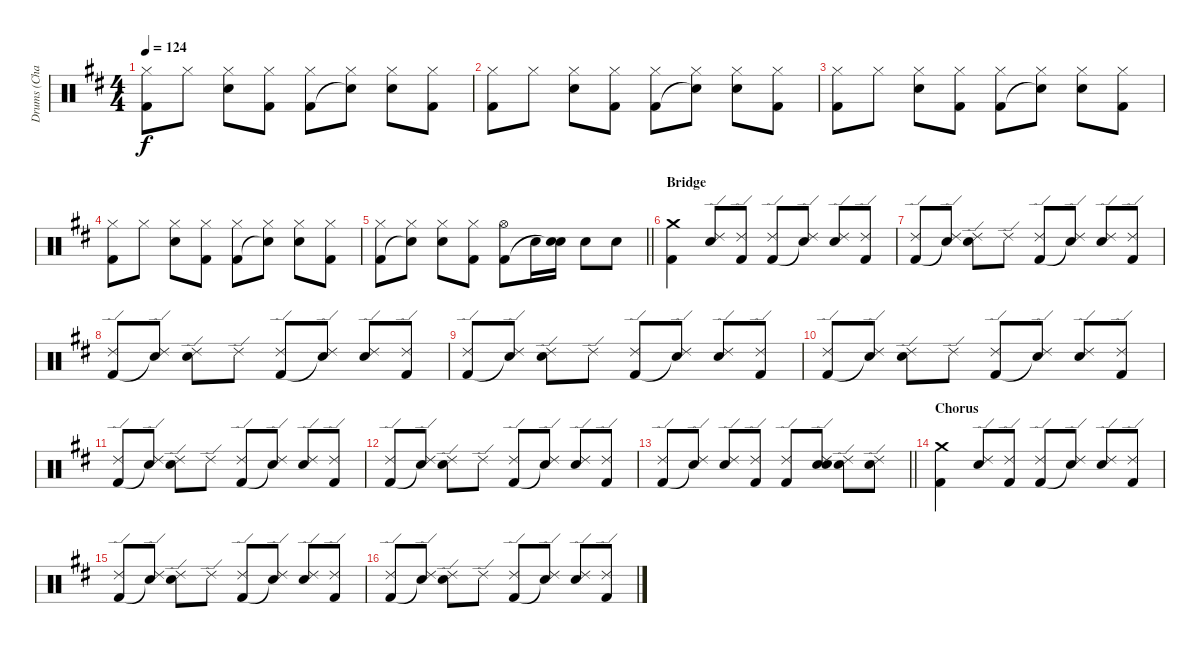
\track ("Drums (Charlie)" "Drums (Cha") {instrument percussion}
\staff {score}
\articulation defaults
\ts (4 4)
\tempo 124
\clef neutral
\ks d
("Hi-Hat (closed)" "Kick (hit) 2").8{dy f} "Hi-Hat (closed)".8 ("Hi-Hat (closed)" "Snare (hit) 2").8 ("Hi-Hat (closed)" "Kick (hit) 2").8 ("Hi-Hat (closed)" "Kick (hit) 2").8 ("Hi-Hat (closed)" "Snare (hit)"{t}).8 ("Hi-Hat (closed)" "Snare (hit) 2").8 ("Hi-Hat (closed)" "Kick (hit) 2").8 |
("Hi-Hat (closed)" "Kick (hit) 2").8 "Hi-Hat (closed)".8 ("Hi-Hat (closed)" "Snare (hit) 2").8 ("Hi-Hat (closed)" "Kick (hit) 2").8 ("Hi-Hat (closed)" "Kick (hit) 2").8 ("Hi-Hat (closed)" "Snare (hit)"{t}).8 ("Hi-Hat (closed)" "Snare (hit) 2").8 ("Hi-Hat (closed)" "Kick (hit) 2").8 |
("Hi-Hat (closed)" "Kick (hit) 2").8 "Hi-Hat (closed)".8 ("Hi-Hat (closed)" "Snare (hit) 2").8 ("Hi-Hat (closed)" "Kick (hit) 2").8 ("Hi-Hat (closed)" "Kick (hit) 2").8 ("Hi-Hat (closed)" "Snare (hit)"{t}).8 ("Hi-Hat (closed)" "Snare (hit) 2").8 ("Hi-Hat (closed)" "Kick (hit) 2").8 |
("Hi-Hat (closed)" "Kick (hit) 2").8 "Hi-Hat (closed)".8 ("Hi-Hat (closed)" "Snare (hit) 2").8 ("Hi-Hat (closed)" "Kick (hit) 2").8 ("Hi-Hat (closed)" "Kick (hit) 2").8 ("Hi-Hat (closed)" "Snare (hit)"{t}).8 ("Hi-Hat (closed)" "Snare (hit) 2").8 ("Hi-Hat (closed)" "Kick (hit) 2").8 |
\barLineRight lightlight
("Hi-Hat (closed)" "Kick (hit) 2").8 ("Hi-Hat (closed)" "Snare (hit)"{t}).8 ("Hi-Hat (closed)" "Snare (hit) 2").8 ("Hi-Hat (closed)" "Kick (hit) 2").8 ("Hi-Hat (open)" "Kick (hit) 2").8 "Snare (hit) 2".16 ("Snare (hit) 2" "Snare (hit)"{t}).16 "Snare (hit) 2".8 "Snare (hit) 2".8 |
\section ("" "Bridge")
("Crash medium (hit)" "Kick (hit) 2").4 ("Ride (edge) 2" "Snare (hit) 2").8 ("Ride (edge) 2" "Kick (hit) 2").8 ("Ride (edge) 2" "Kick (hit) 2").8 ("Ride (edge) 2" "Snare (hit)"{t}).8 ("Ride (edge) 2" "Snare (hit) 2").8 ("Ride (edge) 2" "Kick (hit) 2").8 |
("Ride (edge) 2" "Kick (hit) 2").8 ("Ride (edge) 2" "Snare (hit)"{t}).8 ("Ride (edge) 2" "Snare (hit) 2").8 "Ride (edge) 2".8 ("Ride (edge) 2" "Kick (hit) 2").8 ("Ride (edge) 2" "Snare (hit)"{t}).8 ("Ride (edge) 2" "Snare (hit) 2").8 ("Ride (edge) 2" "Kick (hit) 2").8 |
("Ride (edge) 2" "Kick (hit) 2").8 ("Ride (edge) 2" "Snare (hit)"{t}).8 ("Ride (edge) 2" "Snare (hit) 2").8 "Ride (edge) 2".8 ("Ride (edge) 2" "Kick (hit) 2").8 ("Ride (edge) 2" "Snare (hit)"{t}).8 ("Ride (edge) 2" "Snare (hit) 2").8 ("Ride (edge) 2" "Kick (hit) 2").8 |
("Ride (edge) 2" "Kick (hit) 2").8 ("Ride (edge) 2" "Snare (hit)"{t}).8 ("Ride (edge) 2" "Snare (hit) 2").8 "Ride (edge) 2".8 ("Ride (edge) 2" "Kick (hit) 2").8 ("Ride (edge) 2" "Snare (hit)"{t}).8 ("Ride (edge) 2" "Snare (hit) 2").8 ("Ride (edge) 2" "Kick (hit) 2").8 |
("Ride (edge) 2" "Kick (hit) 2").8 ("Ride (edge) 2" "Snare (hit)"{t}).8 ("Ride (edge) 2" "Snare (hit) 2").8 "Ride (edge) 2".8 ("Ride (edge) 2" "Kick (hit) 2").8 ("Ride (edge) 2" "Snare (hit)"{t}).8 ("Ride (edge) 2" "Snare (hit) 2").8 ("Ride (edge) 2" "Kick (hit) 2").8 |
("Ride (edge) 2" "Kick (hit) 2").8 ("Ride (edge) 2" "Snare (hit)"{t}).8 ("Ride (edge) 2" "Snare (hit) 2").8 "Ride (edge) 2".8 ("Ride (edge) 2" "Kick (hit) 2").8 ("Ride (edge) 2" "Snare (hit)"{t}).8 ("Ride (edge) 2" "Snare (hit) 2").8 ("Ride (edge) 2" "Kick (hit) 2").8 |
("Ride (edge) 2" "Kick (hit) 2").8 ("Ride (edge) 2" "Snare (hit)"{t}).8 ("Ride (edge) 2" "Snare (hit) 2").8 "Ride (edge) 2".8 ("Ride (edge) 2" "Kick (hit) 2").8 ("Ride (edge) 2" "Snare (hit)"{t}).8 ("Ride (edge) 2" "Snare (hit) 2").8 ("Ride (edge) 2" "Kick (hit) 2").8 |
\barLineRight lightlight
("Ride (edge) 2" "Kick (hit) 2").8 ("Ride (edge) 2" "Snare (hit)"{t}).8 ("Ride (edge) 2" "Snare (hit) 2").8 ("Ride (edge) 2" "Kick (hit) 2").8 ("Ride (edge) 2" "Kick (hit) 2").8 ("Ride (edge) 2" "Snare (hit) 2" "Snare (hit)").8 ("Ride (edge) 2" "Snare (hit) 2").8 ("Ride (edge) 2" "Snare (hit) 2").8 |
\section ("" "Chorus")
("Crash medium (hit)" "Kick (hit) 2").4 ("Ride (edge) 2" "Snare (hit) 2").8 ("Ride (edge) 2" "Kick (hit) 2").8 ("Ride (edge) 2" "Kick (hit) 2").8 ("Ride (edge) 2" "Snare (hit)"{t}).8 ("Ride (edge) 2" "Snare (hit) 2").8 ("Ride (edge) 2" "Kick (hit) 2").8 |
("Ride (edge) 2" "Kick (hit) 2").8 ("Ride (edge) 2" "Snare (hit)"{t}).8 ("Ride (edge) 2" "Snare (hit) 2").8 "Ride (edge) 2".8 ("Ride (edge) 2" "Kick (hit) 2").8 ("Ride (edge) 2" "Snare (hit)"{t}).8 ("Ride (edge) 2" "Snare (hit) 2").8 ("Ride (edge) 2" "Kick (hit) 2").8 |
("Ride (edge) 2" "Kick (hit) 2").8 ("Ride (edge) 2" "Snare (hit)"{t}).8 ("Ride (edge) 2" "Snare (hit) 2").8 "Ride (edge) 2".8 ("Ride (edge) 2" "Kick (hit) 2").8 ("Ride (edge) 2" "Snare (hit)"{t}).8 ("Ride (edge) 2" "Snare (hit) 2").8 ("Ride (edge) 2" "Kick (hit) 2").8
